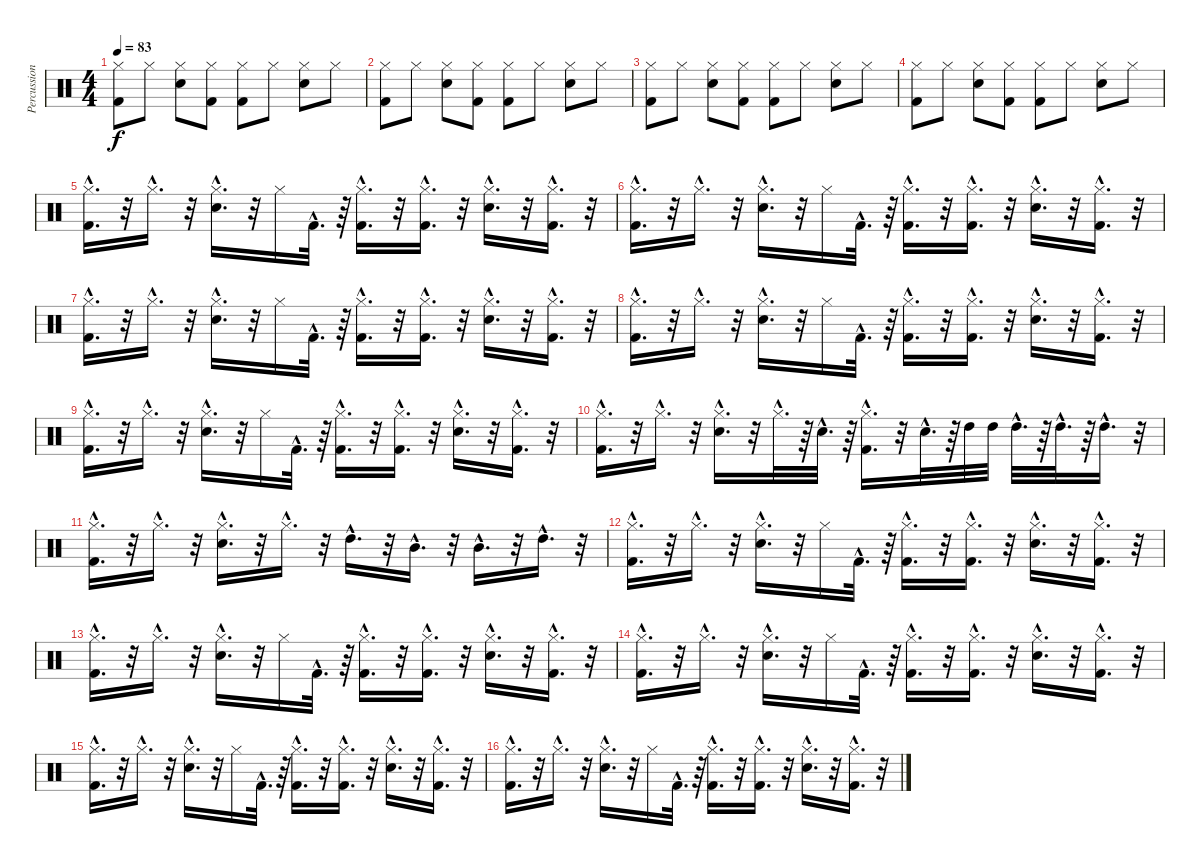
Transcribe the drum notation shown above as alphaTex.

\track ("Percussion" "Percussion") {instrument percussion}
\staff {score}
\articulation defaults
\ts (4 4)
\tempo 83
\clef neutral
\ks c
("Hi-Hat (closed)" "Kick (hit) 2").8{dy f} "Hi-Hat (closed)".8 ("Snare (hit) 2" "Hi-Hat (closed)").8 ("Hi-Hat (closed)" "Kick (hit) 2").8 ("Hi-Hat (closed)" "Kick (hit) 2").8 "Hi-Hat (closed)".8 ("Snare (hit) 2" "Hi-Hat (closed)").8 "Hi-Hat (closed)".8 |
("Hi-Hat (closed)" "Kick (hit) 2").8 "Hi-Hat (closed)".8 ("Snare (hit) 2" "Hi-Hat (closed)").8 ("Hi-Hat (closed)" "Kick (hit) 2").8 ("Hi-Hat (closed)" "Kick (hit) 2").8 "Hi-Hat (closed)".8 ("Snare (hit) 2" "Hi-Hat (closed)").8 "Hi-Hat (closed)".8 |
("Hi-Hat (closed)" "Kick (hit) 2").8 "Hi-Hat (closed)".8 ("Snare (hit) 2" "Hi-Hat (closed)").8 ("Hi-Hat (closed)" "Kick (hit) 2").8 ("Hi-Hat (closed)" "Kick (hit) 2").8 "Hi-Hat (closed)".8 ("Snare (hit) 2" "Hi-Hat (closed)").8 "Hi-Hat (closed)".8 |
("Hi-Hat (closed)" "Kick (hit) 2").8 "Hi-Hat (closed)".8 ("Snare (hit) 2" "Hi-Hat (closed)").8 ("Hi-Hat (closed)" "Kick (hit) 2").8 ("Hi-Hat (closed)" "Kick (hit) 2").8 "Hi-Hat (closed)".8 ("Snare (hit) 2" "Hi-Hat (closed)").8 "Hi-Hat (closed)".8 |
("Kick (hit) 2"{hac} "Hi-Hat (closed)"{hac}).16{d} r.32 "Hi-Hat (closed)"{hac}.16{d} r.32 ("Hi-Hat (closed)"{hac} "Snare (hit) 2"{hac}).16{d} r.32 "Hi-Hat (closed)".16 "Kick (hit) 2"{hac}.32{d} r.64 ("Hi-Hat (closed)"{hac} "Kick (hit) 2"{hac}).16{d} r.32 ("Hi-Hat (closed)"{hac} "Kick (hit) 2"{hac}).16{d} r.32 ("Snare (hit) 2"{hac} "Hi-Hat (closed)"{hac}).16{d} r.32 ("Kick (hit) 2"{hac} "Hi-Hat (closed)"{hac}).16{d} r.32 |
("Kick (hit) 2"{hac} "Hi-Hat (closed)"{hac}).16{d} r.32 "Hi-Hat (closed)"{hac}.16{d} r.32 ("Hi-Hat (closed)"{hac} "Snare (hit) 2"{hac}).16{d} r.32 "Hi-Hat (closed)".16 "Kick (hit) 2"{hac}.32{d} r.64 ("Hi-Hat (closed)"{hac} "Kick (hit) 2"{hac}).16{d} r.32 ("Hi-Hat (closed)"{hac} "Kick (hit) 2"{hac}).16{d} r.32 ("Hi-Hat (closed)"{hac} "Snare (hit) 2"{hac}).16{d} r.32 ("Kick (hit) 2"{hac} "Hi-Hat (closed)"{hac}).16{d} r.32 |
("Kick (hit) 2"{hac} "Hi-Hat (closed)"{hac}).16{d} r.32 "Hi-Hat (closed)"{hac}.16{d} r.32 ("Snare (hit) 2"{hac} "Hi-Hat (closed)"{hac}).16{d} r.32 "Hi-Hat (closed)".16 "Kick (hit) 2"{hac}.32{d} r.64 ("Hi-Hat (closed)"{hac} "Kick (hit) 2"{hac}).16{d} r.32 ("Hi-Hat (closed)"{hac} "Kick (hit) 2"{hac}).16{d} r.32 ("Snare (hit) 2"{hac} "Hi-Hat (closed)"{hac}).16{d} r.32 ("Hi-Hat (closed)"{hac} "Kick (hit) 2"{hac}).16{d} r.32 |
("Kick (hit) 2"{hac} "Hi-Hat (closed)"{hac}).16{d} r.32 "Hi-Hat (closed)"{hac}.16{d} r.32 ("Snare (hit) 2"{hac} "Hi-Hat (closed)"{hac}).16{d} r.32 "Hi-Hat (closed)".16 "Kick (hit) 2"{hac}.32{d} r.64 ("Hi-Hat (closed)"{hac} "Kick (hit) 2"{hac}).16{d} r.32 ("Hi-Hat (closed)"{hac} "Kick (hit) 2"{hac}).16{d} r.32 ("Snare (hit) 2"{hac} "Hi-Hat (closed)"{hac}).16{d} r.32 ("Kick (hit) 2"{hac} "Hi-Hat (closed)"{hac}).16{d} r.32 |
("Kick (hit) 2"{hac} "Hi-Hat (closed)"{hac}).16{d} r.32 "Hi-Hat (closed)"{hac}.16{d} r.32 ("Hi-Hat (closed)"{hac} "Snare (hit) 2"{hac}).16{d} r.32 "Hi-Hat (closed)".16 "Kick (hit) 2"{hac}.32{d} r.64 ("Kick (hit) 2"{hac} "Hi-Hat (closed)"{hac}).16{d} r.32 ("Kick (hit) 2"{hac} "Hi-Hat (closed)"{hac}).16{d} r.32 ("Hi-Hat (closed)"{hac} "Snare (hit) 2"{hac}).16{d} r.32 ("Hi-Hat (closed)"{hac} "Kick (hit) 2"{hac}).16{d} r.32 |
("Hi-Hat (closed)"{hac} "Kick (hit) 2"{hac}).16{d} r.32 "Hi-Hat (closed)"{hac}.16{d} r.32 ("Hi-Hat (closed)"{hac} "Snare (hit) 2"{hac}).16{d} r.32 "Hi-Hat (closed)"{hac}.32{d} r.64 "Snare (hit) 2"{hac}.32{d} r.64 ("Hi-Hat (closed)"{hac} "Kick (hit) 2"{hac}).16{d} r.32 "Snare (hit) 2"{hac}.32{d} r.64 "High Tom (hit)".32 "High Tom (hit)".32 "High Tom (hit)"{hac}.32{d} r.64 "High Tom (hit)"{hac}.32{d} r.64 "High Tom (hit)"{hac}.16{d} r.32 |
("Kick (hit) 2"{hac} "Hi-Hat (closed)"{hac}).16{d} r.32 "Hi-Hat (closed)"{hac}.16{d} r.32 ("Hi-Hat (closed)"{hac} "Snare (hit) 2"{hac}).16{d} r.32 "Hi-Hat (closed)"{hac}.16{d} r.32 "High Tom (hit)"{hac}.16{d} r.32 "Mid Tom (hit)"{hac}.16{d} r.32 "Mid Tom (hit)"{hac}.16{d} r.32 "High Tom (hit)"{hac}.16{d} r.32 |
("Hi-Hat (closed)"{hac} "Kick (hit) 2"{hac}).16{d} r.32 "Hi-Hat (closed)"{hac}.16{d} r.32 ("Snare (hit) 2"{hac} "Hi-Hat (closed)"{hac}).16{d} r.32 "Hi-Hat (closed)".16 "Kick (hit) 2"{hac}.32{d} r.64 ("Hi-Hat (closed)"{hac} "Kick (hit) 2"{hac}).16{d} r.32 ("Hi-Hat (closed)"{hac} "Kick (hit) 2"{hac}).16{d} r.32 ("Snare (hit) 2"{hac} "Hi-Hat (closed)"{hac}).16{d} r.32 ("Hi-Hat (closed)"{hac} "Kick (hit) 2"{hac}).16{d} r.32 |
("Hi-Hat (closed)"{hac} "Kick (hit) 2"{hac}).16{d} r.32 "Hi-Hat (closed)"{hac}.16{d} r.32 ("Hi-Hat (closed)"{hac} "Snare (hit) 2"{hac}).16{d} r.32 "Hi-Hat (closed)".16 "Kick (hit) 2"{hac}.32{d} r.64 ("Hi-Hat (closed)"{hac} "Kick (hit) 2"{hac}).16{d} r.32 ("Hi-Hat (closed)"{hac} "Kick (hit) 2"{hac}).16{d} r.32 ("Snare (hit) 2"{hac} "Hi-Hat (closed)"{hac}).16{d} r.32 ("Kick (hit) 2"{hac} "Hi-Hat (closed)"{hac}).16{d} r.32 |
("Hi-Hat (closed)"{hac} "Kick (hit) 2"{hac}).16{d} r.32 "Hi-Hat (closed)"{hac}.16{d} r.32 ("Snare (hit) 2"{hac} "Hi-Hat (closed)"{hac}).16{d} r.32 "Hi-Hat (closed)".16 "Kick (hit) 2"{hac}.32{d} r.64 ("Hi-Hat (closed)"{hac} "Kick (hit) 2"{hac}).16{d} r.32 ("Hi-Hat (closed)"{hac} "Kick (hit) 2"{hac}).16{d} r.32 ("Snare (hit) 2"{hac} "Hi-Hat (closed)"{hac}).16{d} r.32 ("Hi-Hat (closed)"{hac} "Kick (hit) 2"{hac}).16{d} r.32 |
("Hi-Hat (closed)"{hac} "Kick (hit) 2"{hac}).16{d} r.32 "Hi-Hat (closed)"{hac}.16{d} r.32 ("Hi-Hat (closed)"{hac} "Snare (hit) 2"{hac}).16{d} r.32 "Hi-Hat (closed)".16 "Kick (hit) 2"{hac}.32{d} r.64 ("Kick (hit) 2"{hac} "Hi-Hat (closed)"{hac}).16{d} r.32 ("Kick (hit) 2"{hac} "Hi-Hat (closed)"{hac}).16{d} r.32 ("Hi-Hat (closed)"{hac} "Snare (hit) 2"{hac}).16{d} r.32 ("Kick (hit) 2"{hac} "Hi-Hat (closed)"{hac}).16{d} r.32 |
("Hi-Hat (closed)"{hac} "Kick (hit) 2"{hac}).16{d} r.32 "Hi-Hat (closed)"{hac}.16{d} r.32 ("Hi-Hat (closed)"{hac} "Snare (hit) 2"{hac}).16{d} r.32 "Hi-Hat (closed)".16 "Kick (hit) 2"{hac}.32{d} r.64 ("Hi-Hat (closed)"{hac} "Kick (hit) 2"{hac}).16{d} r.32 ("Hi-Hat (closed)"{hac} "Kick (hit) 2"{hac}).16{d} r.32 ("Snare (hit) 2"{hac} "Hi-Hat (closed)"{hac}).16{d} r.32 ("Hi-Hat (closed)"{hac} "Kick (hit) 2"{hac}).16{d} r.32
